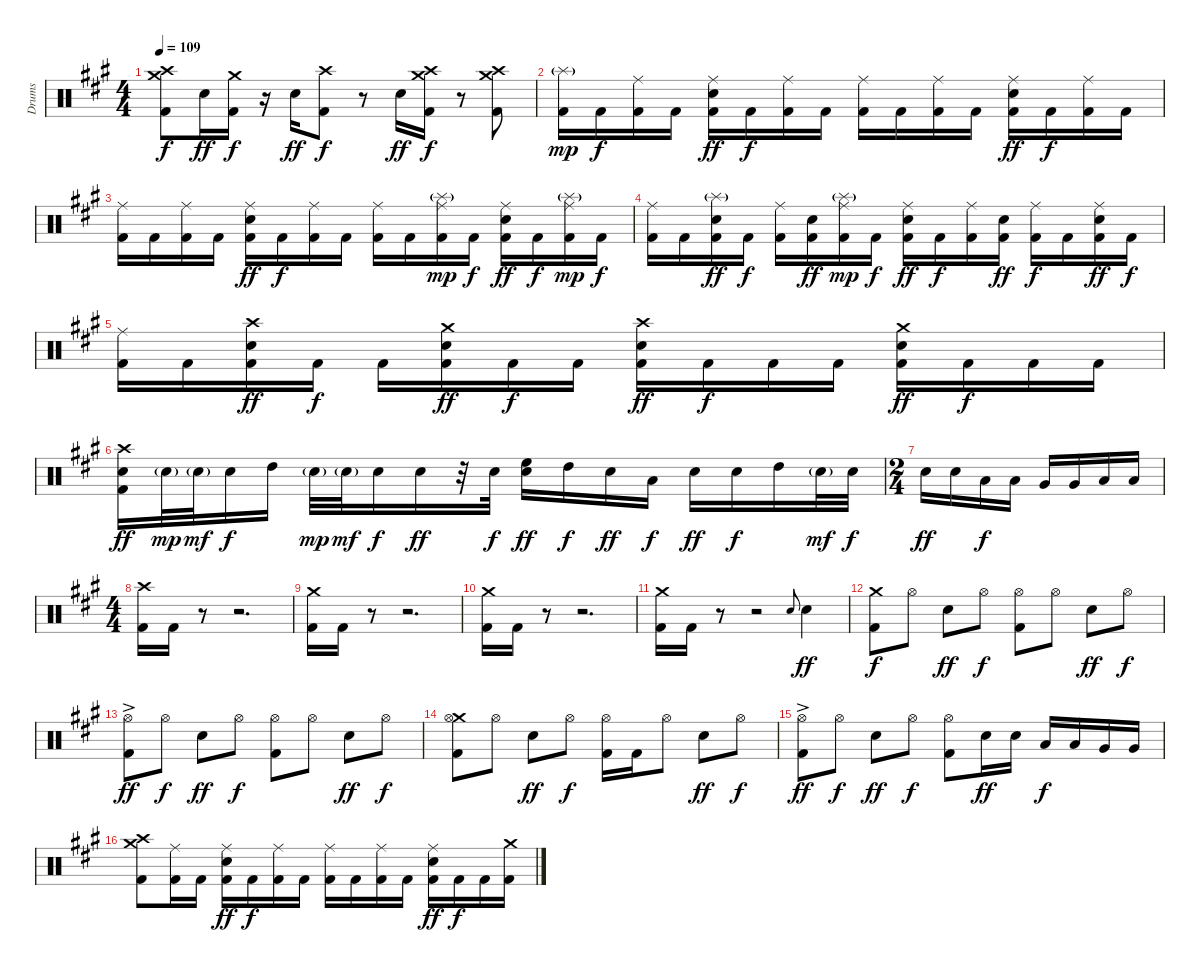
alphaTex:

\track ("Drums" "Drums") {instrument percussion}
\staff {score}
\articulation defaults
\ts (4 4)
\tempo 109
\clef neutral
\ks f#minor
("Crash medium (hit)" "Crash high (hit)" "Kick (hit) 2").8{dy f} "Electric Snare (hit)".16{dy ff} ("Crash medium (hit)" "Kick (hit) 2").16{dy f} r.16 "Electric Snare (hit)".16{dy ff} ("Crash high (hit)" "Kick (hit) 2").8{dy f} r.8 "Electric Snare (hit)".16{dy ff} ("Crash medium (hit)" "Crash high (hit)" "Kick (hit) 2").16{dy f} r.8 ("Crash medium (hit)" "Crash high (hit)" "Kick (hit) 2").8 |
("Splash (hit)"{g} "Kick (hit) 2").16{dy mp} "Kick (hit) 2".16{dy f} ("Ride (middle)" "Kick (hit) 2").16 "Kick (hit) 2".16 ("Ride (middle)" "Electric Snare (hit)" "Kick (hit) 2").16{dy ff} "Kick (hit) 2".16{dy f} ("Ride (middle)" "Kick (hit) 2").16 "Kick (hit) 2".16 ("Ride (middle)" "Kick (hit) 2").16 "Kick (hit) 2".16 ("Ride (middle)" "Kick (hit) 2").16 "Kick (hit) 2".16 ("Ride (middle)" "Electric Snare (hit)" "Kick (hit) 2").16{dy ff} "Kick (hit) 2".16{dy f} ("Ride (middle)" "Kick (hit) 2").16 "Kick (hit) 2".16 |
("Ride (middle)" "Kick (hit) 2").16 "Kick (hit) 2".16 ("Ride (middle)" "Kick (hit) 2").16 "Kick (hit) 2".16 ("Ride (middle)" "Electric Snare (hit)" "Kick (hit) 2").16{dy ff} "Kick (hit) 2".16{dy f} ("Ride (middle)" "Kick (hit) 2").16 "Kick (hit) 2".16 ("Ride (middle)" "Kick (hit) 2").16 "Kick (hit) 2".16 ("Ride (middle)" "Splash (hit)"{g} "Kick (hit) 2").16{dy mp} "Kick (hit) 2".16{dy f} ("Ride (middle)" "Electric Snare (hit)" "Kick (hit) 2").16{dy ff} "Kick (hit) 2".16{dy f} ("Ride (middle)" "Splash (hit)"{g} "Kick (hit) 2").16{dy mp} "Kick (hit) 2".16{dy f} |
("Ride (middle)" "Kick (hit) 2").16 "Kick (hit) 2".16 ("Splash (hit)"{g} "Electric Snare (hit)" "Kick (hit) 2").16{dy ff} "Kick (hit) 2".16{dy f} ("Ride (middle)" "Kick (hit) 2").16 ("Electric Snare (hit)" "Kick (hit) 2").16{dy ff} ("Ride (middle)" "Splash (hit)"{g} "Kick (hit) 2").16{dy mp} "Kick (hit) 2".16{dy f} ("Ride (middle)" "Electric Snare (hit)" "Kick (hit) 2").16{dy ff} "Kick (hit) 2".16{dy f} ("Ride (middle)" "Kick (hit) 2").16 ("Electric Snare (hit)" "Kick (hit) 2").16{dy ff} ("Ride (middle)" "Kick (hit) 2").16{dy f} "Kick (hit) 2".16 ("Ride (middle)" "Electric Snare (hit)" "Kick (hit) 2").16{dy ff} "Kick (hit) 2".16{dy f} |
("Ride (middle)" "Kick (hit) 2").16 "Kick (hit) 2".16 ("Crash high (hit)" "Electric Snare (hit)" "Kick (hit) 2").16{dy ff} "Kick (hit) 2".16{dy f} "Kick (hit) 2".16 ("Crash medium (hit)" "Electric Snare (hit)" "Kick (hit) 2").16{dy ff} "Kick (hit) 2".16{dy f} "Kick (hit) 2".16 ("Crash high (hit)" "Electric Snare (hit)" "Kick (hit) 2").16{dy ff} "Kick (hit) 2".16{dy f} "Kick (hit) 2".16 "Kick (hit) 2".16 ("Crash medium (hit)" "Electric Snare (hit)" "Kick (hit) 2").16{dy ff} "Kick (hit) 2".16{dy f} "Kick (hit) 2".16 "Kick (hit) 2".16 |
("Crash high (hit)" "Electric Snare (hit)" "Kick (hit) 2").16{dy ff} "Electric Snare (hit)"{g}.32{dy mp} "Electric Snare (hit)"{g}.32{dy mf} "Electric Snare (hit)".16{dy f} "High Tom (hit)".16 "Electric Snare (hit)"{g}.32{dy mp} "Electric Snare (hit)"{g}.32{dy mf} "Electric Snare (hit)".16{dy f} "Electric Snare (hit)".16{dy ff} r.32 "Electric Snare (hit)".32{dy f} ("Electric Snare (hit)" "High Floor Tom (hit)").16{dy ff} "High Tom (hit)".16{dy f} "Electric Snare (hit)".16{dy ff} "Low Tom (hit)".16{dy f} "Electric Snare (hit)".16{dy ff} "Electric Snare (hit)".16{dy f} "High Tom (hit)".16 "Electric Snare (hit)"{g}.32{dy mf} "Electric Snare (hit)".32{dy f} |
\ts (2 4)
"Electric Snare (hit)".16{dy ff} "Electric Snare (hit)".16 "Low Tom (hit)".16{dy f} "Low Tom (hit)".16 "Very Low Tom (hit)".16 "Very Low Tom (hit)".16 "Low Floor Tom (hit)".16 "Low Floor Tom (hit)".16 |
\ts (4 4)
("Crash high (hit)" "Kick (hit) 2").16 "Kick (hit) 2".16 r.8 r.2{d} |
("Crash medium (hit)" "Kick (hit) 2").16 "Kick (hit) 2".16 r.8 r.2{d} |
("Crash medium (hit)" "Kick (hit) 2").16 "Kick (hit) 2".16 r.8 r.2{d} |
("Crash medium (hit)" "Kick (hit) 2").16 "Kick (hit) 2".16 r.8 r.2 "Electric Snare (hit)".8{gr onbeat} "Electric Snare (hit)".4{dy ff} |
("Crash medium (hit)" "Kick (hit) 2").8{dy f} "Hi-Hat (open)".8 "Electric Snare (hit)".8{dy ff} "Hi-Hat (open)".8{dy f} ("Hi-Hat (open)" "Kick (hit) 2").8 "Hi-Hat (open)".8 "Electric Snare (hit)".8{dy ff} "Hi-Hat (open)".8{dy f} |
("Hi-Hat (open)"{ac} "Kick (hit) 2").8{dy ff} "Hi-Hat (open)".8{dy f} "Electric Snare (hit)".8{dy ff} "Hi-Hat (open)".8{dy f} ("Hi-Hat (open)" "Kick (hit) 2").8 "Hi-Hat (open)".8 "Electric Snare (hit)".8{dy ff} "Hi-Hat (open)".8{dy f} |
("Crash medium (hit)" "Hi-Hat (open)" "Kick (hit) 2").8 "Hi-Hat (open)".8 "Electric Snare (hit)".8{dy ff} "Hi-Hat (open)".8{dy f} ("Hi-Hat (open)" "Kick (hit) 2").16 "Kick (hit) 2".16 "Hi-Hat (open)".8 "Electric Snare (hit)".8{dy ff} "Hi-Hat (open)".8{dy f} |
("Hi-Hat (open)"{ac} "Kick (hit) 2").8{dy ff} "Hi-Hat (open)".8{dy f} "Electric Snare (hit)".8{dy ff} "Hi-Hat (open)".8{dy f} ("Hi-Hat (open)" "Kick (hit) 2").8 "Electric Snare (hit)".16{dy ff} "Electric Snare (hit)".16 "Low Tom (hit)".16{dy f} "Low Tom (hit)".16 "Very Low Tom (hit)".16 "Very Low Tom (hit)".16 |
("Crash medium (hit)" "Crash high (hit)" "Kick (hit) 2").8 ("Ride (middle)" "Kick (hit) 2").16 "Kick (hit) 2".16 ("Ride (middle)" "Electric Snare (hit)" "Kick (hit) 2").16{dy ff} "Kick (hit) 2".16{dy f} ("Ride (middle)" "Kick (hit) 2").16 "Kick (hit) 2".16 ("Ride (middle)" "Kick (hit) 2").16 "Kick (hit) 2".16 ("Ride (middle)" "Kick (hit) 2").16 "Kick (hit) 2".16 ("Ride (middle)" "Electric Snare (hit)" "Kick (hit) 2").16{dy ff} "Kick (hit) 2".16{dy f} "Kick (hit) 2".16 ("Crash medium (hit)" "Kick (hit) 2").16
